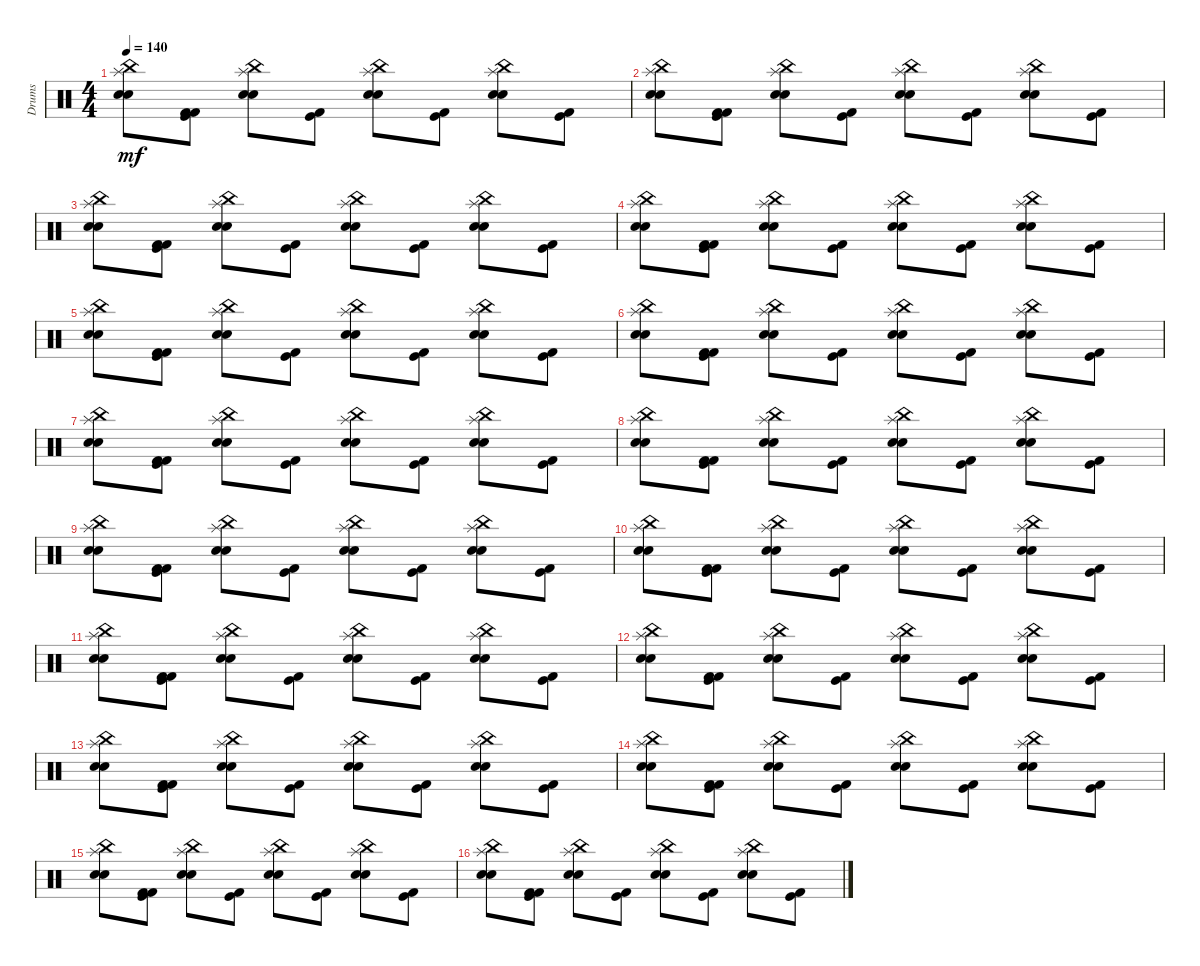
\track ("Drums" "Drums") {instrument percussion}
\staff {score}
\articulation defaults
\ts (4 4)
\tempo 140
\clef neutral
\ks c
("China (hit)" "Snare (hit) 2" "Electric Snare (hit)" "Splash (hit)").8{dy mf} ("Kick (hit) 2" "Kick (hit) 2" "Kick (hit)").8 ("Splash (hit)" "Electric Snare (hit)" "Snare (hit) 2" "China (hit)").8 ("Kick (hit) 2" "Kick (hit)").8 ("Splash (hit)" "Electric Snare (hit)" "Snare (hit) 2" "China (hit)").8 ("Kick (hit) 2" "Kick (hit)").8 ("Snare (hit) 2" "Electric Snare (hit)" "Splash (hit)" "China (hit)").8 ("Kick (hit)" "Kick (hit) 2").8 |
("China (hit)" "Snare (hit) 2" "Electric Snare (hit)" "Splash (hit)").8 ("Kick (hit) 2" "Kick (hit) 2" "Kick (hit)").8 ("Splash (hit)" "Electric Snare (hit)" "Snare (hit) 2" "China (hit)").8 ("Kick (hit)" "Kick (hit) 2").8 ("China (hit)" "Splash (hit)" "Electric Snare (hit)" "Snare (hit) 2").8 ("Kick (hit)" "Kick (hit) 2").8 ("Snare (hit) 2" "Electric Snare (hit)" "Splash (hit)" "China (hit)").8 ("Kick (hit)" "Kick (hit) 2").8 |
("China (hit)" "Snare (hit) 2" "Electric Snare (hit)" "Splash (hit)").8 ("Kick (hit) 2" "Kick (hit) 2" "Kick (hit)").8 ("Splash (hit)" "Electric Snare (hit)" "Snare (hit) 2" "China (hit)").8 ("Kick (hit)" "Kick (hit) 2").8 ("China (hit)" "Splash (hit)" "Electric Snare (hit)" "Snare (hit) 2").8 ("Kick (hit)" "Kick (hit) 2").8 ("Snare (hit) 2" "Electric Snare (hit)" "Splash (hit)" "China (hit)").8 ("Kick (hit)" "Kick (hit) 2").8 |
("China (hit)" "Snare (hit) 2" "Electric Snare (hit)" "Splash (hit)").8 ("Kick (hit) 2" "Kick (hit) 2" "Kick (hit)").8 ("Splash (hit)" "Electric Snare (hit)" "Snare (hit) 2" "China (hit)").8 ("Kick (hit) 2" "Kick (hit)").8 ("China (hit)" "Splash (hit)" "Electric Snare (hit)" "Snare (hit) 2").8 ("Kick (hit)" "Kick (hit) 2").8 ("Snare (hit) 2" "Electric Snare (hit)" "Splash (hit)" "China (hit)").8 ("Kick (hit)" "Kick (hit) 2").8 |
("China (hit)" "Snare (hit) 2" "Electric Snare (hit)" "Splash (hit)").8 ("Kick (hit) 2" "Kick (hit) 2" "Kick (hit)").8 ("Splash (hit)" "Electric Snare (hit)" "Snare (hit) 2" "China (hit)").8 ("Kick (hit)" "Kick (hit) 2").8 ("China (hit)" "Splash (hit)" "Electric Snare (hit)" "Snare (hit) 2").8 ("Kick (hit)" "Kick (hit) 2").8 ("Snare (hit) 2" "Electric Snare (hit)" "Splash (hit)" "China (hit)").8 ("Kick (hit)" "Kick (hit) 2").8 |
("China (hit)" "Snare (hit) 2" "Electric Snare (hit)" "Splash (hit)").8 ("Kick (hit) 2" "Kick (hit) 2" "Kick (hit)").8 ("Splash (hit)" "Electric Snare (hit)" "Snare (hit) 2" "China (hit)").8 ("Kick (hit) 2" "Kick (hit)").8 ("Splash (hit)" "Electric Snare (hit)" "Snare (hit) 2" "China (hit)").8 ("Kick (hit) 2" "Kick (hit)").8 ("Snare (hit) 2" "Electric Snare (hit)" "Splash (hit)" "China (hit)").8 ("Kick (hit)" "Kick (hit) 2").8 |
("China (hit)" "Snare (hit) 2" "Electric Snare (hit)" "Splash (hit)").8 ("Kick (hit) 2" "Kick (hit) 2" "Kick (hit)").8 ("Splash (hit)" "Electric Snare (hit)" "Snare (hit) 2" "China (hit)").8 ("Kick (hit)" "Kick (hit) 2").8 ("China (hit)" "Splash (hit)" "Electric Snare (hit)" "Snare (hit) 2").8 ("Kick (hit)" "Kick (hit) 2").8 ("Snare (hit) 2" "Electric Snare (hit)" "Splash (hit)" "China (hit)").8 ("Kick (hit)" "Kick (hit) 2").8 |
("China (hit)" "Snare (hit) 2" "Electric Snare (hit)" "Splash (hit)").8 ("Kick (hit) 2" "Kick (hit) 2" "Kick (hit)").8 ("Splash (hit)" "Electric Snare (hit)" "Snare (hit) 2" "China (hit)").8 ("Kick (hit)" "Kick (hit) 2").8 ("China (hit)" "Splash (hit)" "Electric Snare (hit)" "Snare (hit) 2").8 ("Kick (hit)" "Kick (hit) 2").8 ("Snare (hit) 2" "Electric Snare (hit)" "Splash (hit)" "China (hit)").8 ("Kick (hit)" "Kick (hit) 2").8 |
("China (hit)" "Snare (hit) 2" "Electric Snare (hit)" "Splash (hit)").8 ("Kick (hit) 2" "Kick (hit) 2" "Kick (hit)").8 ("Splash (hit)" "Electric Snare (hit)" "Snare (hit) 2" "China (hit)").8 ("Kick (hit) 2" "Kick (hit)").8 ("China (hit)" "Splash (hit)" "Electric Snare (hit)" "Snare (hit) 2").8 ("Kick (hit)" "Kick (hit) 2").8 ("Snare (hit) 2" "Electric Snare (hit)" "Splash (hit)" "China (hit)").8 ("Kick (hit)" "Kick (hit) 2").8 |
("China (hit)" "Snare (hit) 2" "Electric Snare (hit)" "Splash (hit)").8 ("Kick (hit) 2" "Kick (hit) 2" "Kick (hit)").8 ("Splash (hit)" "Electric Snare (hit)" "Snare (hit) 2" "China (hit)").8 ("Kick (hit)" "Kick (hit) 2").8 ("China (hit)" "Splash (hit)" "Electric Snare (hit)" "Snare (hit) 2").8 ("Kick (hit)" "Kick (hit) 2").8 ("Snare (hit) 2" "Electric Snare (hit)" "Splash (hit)" "China (hit)").8 ("Kick (hit)" "Kick (hit) 2").8 |
("China (hit)" "Snare (hit) 2" "Electric Snare (hit)" "Splash (hit)").8 ("Kick (hit) 2" "Kick (hit) 2" "Kick (hit)").8 ("Splash (hit)" "Electric Snare (hit)" "Snare (hit) 2" "China (hit)").8 ("Kick (hit) 2" "Kick (hit)").8 ("Splash (hit)" "Electric Snare (hit)" "Snare (hit) 2" "China (hit)").8 ("Kick (hit) 2" "Kick (hit)").8 ("Snare (hit) 2" "Electric Snare (hit)" "Splash (hit)" "China (hit)").8 ("Kick (hit)" "Kick (hit) 2").8 |
("China (hit)" "Snare (hit) 2" "Electric Snare (hit)" "Splash (hit)").8 ("Kick (hit) 2" "Kick (hit) 2" "Kick (hit)").8 ("Splash (hit)" "Electric Snare (hit)" "Snare (hit) 2" "China (hit)").8 ("Kick (hit)" "Kick (hit) 2").8 ("China (hit)" "Splash (hit)" "Electric Snare (hit)" "Snare (hit) 2").8 ("Kick (hit)" "Kick (hit) 2").8 ("Snare (hit) 2" "Electric Snare (hit)" "Splash (hit)" "China (hit)").8 ("Kick (hit)" "Kick (hit) 2").8 |
("China (hit)" "Snare (hit) 2" "Electric Snare (hit)" "Splash (hit)").8 ("Kick (hit) 2" "Kick (hit) 2" "Kick (hit)").8 ("Splash (hit)" "Electric Snare (hit)" "Snare (hit) 2" "China (hit)").8 ("Kick (hit)" "Kick (hit) 2").8 ("China (hit)" "Splash (hit)" "Electric Snare (hit)" "Snare (hit) 2").8 ("Kick (hit)" "Kick (hit) 2").8 ("Snare (hit) 2" "Electric Snare (hit)" "Splash (hit)" "China (hit)").8 ("Kick (hit)" "Kick (hit) 2").8 |
("China (hit)" "Snare (hit) 2" "Electric Snare (hit)" "Splash (hit)").8 ("Kick (hit) 2" "Kick (hit) 2" "Kick (hit)").8 ("Splash (hit)" "Electric Snare (hit)" "Snare (hit) 2" "China (hit)").8 ("Kick (hit) 2" "Kick (hit)").8 ("China (hit)" "Splash (hit)" "Electric Snare (hit)" "Snare (hit) 2").8 ("Kick (hit)" "Kick (hit) 2").8 ("Snare (hit) 2" "Electric Snare (hit)" "Splash (hit)" "China (hit)").8 ("Kick (hit)" "Kick (hit) 2").8 |
("China (hit)" "Snare (hit) 2" "Electric Snare (hit)" "Splash (hit)").8 ("Kick (hit) 2" "Kick (hit) 2" "Kick (hit)").8 ("Splash (hit)" "Electric Snare (hit)" "Snare (hit) 2" "China (hit)").8 ("Kick (hit)" "Kick (hit) 2").8 ("China (hit)" "Splash (hit)" "Electric Snare (hit)" "Snare (hit) 2").8 ("Kick (hit)" "Kick (hit) 2").8 ("Snare (hit) 2" "Electric Snare (hit)" "Splash (hit)" "China (hit)").8 ("Kick (hit)" "Kick (hit) 2").8 |
("China (hit)" "Snare (hit) 2" "Electric Snare (hit)" "Splash (hit)").8 ("Kick (hit) 2" "Kick (hit) 2" "Kick (hit)").8 ("Splash (hit)" "Electric Snare (hit)" "Snare (hit) 2" "China (hit)").8 ("Kick (hit) 2" "Kick (hit)").8 ("Splash (hit)" "Electric Snare (hit)" "Snare (hit) 2" "China (hit)").8 ("Kick (hit) 2" "Kick (hit)").8 ("Snare (hit) 2" "Electric Snare (hit)" "Splash (hit)" "China (hit)").8 ("Kick (hit)" "Kick (hit) 2").8
